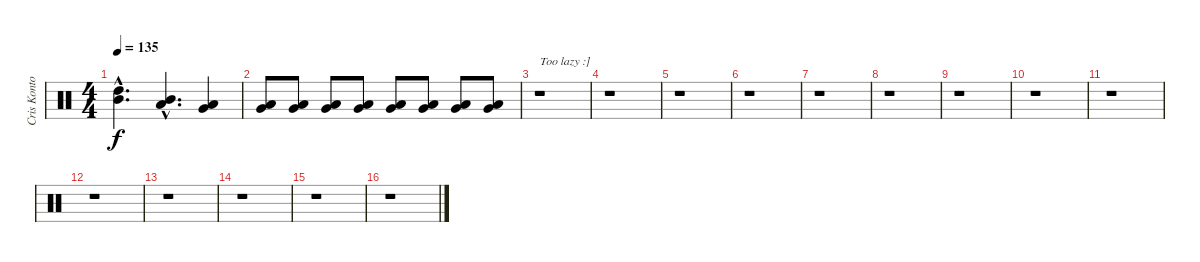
\track ("Cris Kontos" "Cris Konto") {instrument percussion}
\staff {score}
\articulation defaults
\ts (4 4)
\tempo 135
\clef neutral
\ks c
("High Tom (hit)"{hac} "Mid Tom (hit)"{hac}).4{d dy f} ("Mid Tom (hit)"{hac} "Low Tom (hit)"{hac}).4{d} ("Low Tom (hit)" "Very Low Tom (hit)").4 |
("Low Tom (hit)" "Very Low Tom (hit)").8 ("Low Tom (hit)" "Very Low Tom (hit)").8 ("Low Tom (hit)" "Very Low Tom (hit)").8 ("Low Tom (hit)" "Very Low Tom (hit)").8 ("Low Tom (hit)" "Very Low Tom (hit)").8 ("Low Tom (hit)" "Very Low Tom (hit)").8 ("Low Tom (hit)" "Very Low Tom (hit)").8 ("Low Tom (hit)" "Very Low Tom (hit)").8 |
r.1{txt "Too lazy :]"} |
r.1 |
r.1 |
r.1 |
r.1 |
r.1 |
r.1 |
r.1 |
r.1 |
r.1 |
r.1 |
r.1 |
r.1 |
r.1
